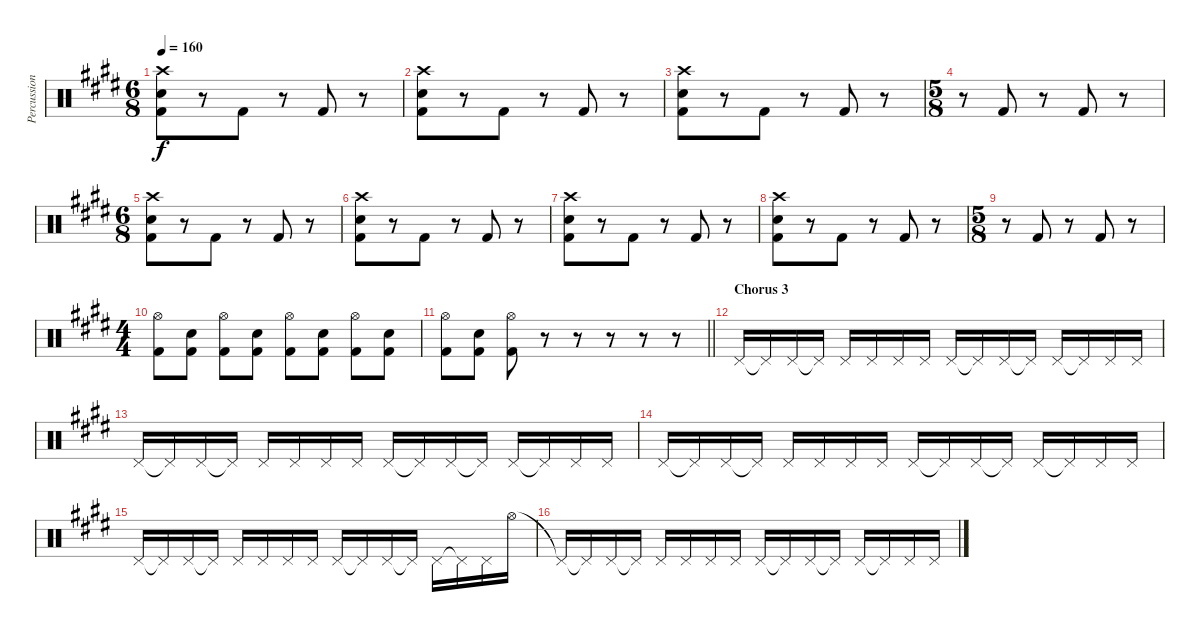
\track ("Percussion" "Percussion") {instrument percussion}
\staff {score}
\articulation defaults
\ts (6 8)
\tempo 160
\clef neutral
\ks c#minor
("Crash high (hit)" "Electric Snare (hit)" "Kick (hit) 2").8{dy f} r.8 "Kick (hit) 2".8 r.8 "Kick (hit) 2".8 r.8 |
("Crash high (hit)" "Electric Snare (hit)" "Kick (hit) 2").8 r.8 "Kick (hit) 2".8 r.8 "Kick (hit) 2".8 r.8 |
("Crash high (hit)" "Electric Snare (hit)" "Kick (hit) 2").8 r.8 "Kick (hit) 2".8 r.8 "Kick (hit) 2".8 r.8 |
\ts (5 8)
r.8 "Kick (hit) 2".8 r.8 "Kick (hit) 2".8 r.8 |
\ts (6 8)
("Crash high (hit)" "Electric Snare (hit)" "Kick (hit) 2").8 r.8 "Kick (hit) 2".8 r.8 "Kick (hit) 2".8 r.8 |
("Crash high (hit)" "Electric Snare (hit)" "Kick (hit) 2").8 r.8 "Kick (hit) 2".8 r.8 "Kick (hit) 2".8 r.8 |
("Crash high (hit)" "Electric Snare (hit)" "Kick (hit) 2").8 r.8 "Kick (hit) 2".8 r.8 "Kick (hit) 2".8 r.8 |
("Crash high (hit)" "Electric Snare (hit)" "Kick (hit) 2").8 r.8 "Kick (hit) 2".8 r.8 "Kick (hit) 2".8 r.8 |
\ts (5 8)
r.8 "Kick (hit) 2".8 r.8 "Kick (hit) 2".8 r.8 |
\ts (4 4)
("Hi-Hat (open)" "Kick (hit) 2").8 ("Electric Snare (hit)" "Kick (hit) 2").8 ("Hi-Hat (open)" "Kick (hit) 2").8 ("Electric Snare (hit)" "Kick (hit) 2").8 ("Hi-Hat (open)" "Kick (hit) 2").8 ("Electric Snare (hit)" "Kick (hit) 2").8 ("Hi-Hat (open)" "Kick (hit) 2").8 ("Electric Snare (hit)" "Kick (hit) 2").8 |
\barLineRight lightlight
("Hi-Hat (open)" "Kick (hit) 2").8 ("Electric Snare (hit)" "Kick (hit) 2").8 ("Hi-Hat (open)" "Kick (hit) 2").8 r.8 r.8 r.8 r.8 r.8 |
\section ("" "Chorus 3")
"Pedal Hi-Hat (hit)".16 "Pedal Hi-Hat (hit)"{t}.16 "Pedal Hi-Hat (hit)".16 "Pedal Hi-Hat (hit)"{t}.16 "Pedal Hi-Hat (hit)".16 "Pedal Hi-Hat (hit)".16 "Pedal Hi-Hat (hit)".16 "Pedal Hi-Hat (hit)".16 "Pedal Hi-Hat (hit)".16 "Pedal Hi-Hat (hit)"{t}.16 "Pedal Hi-Hat (hit)".16 "Pedal Hi-Hat (hit)"{t}.16 "Pedal Hi-Hat (hit)".16 "Pedal Hi-Hat (hit)"{t}.16 "Pedal Hi-Hat (hit)".16 "Pedal Hi-Hat (hit)".16 |
"Pedal Hi-Hat (hit)".16 "Pedal Hi-Hat (hit)"{t}.16 "Pedal Hi-Hat (hit)".16 "Pedal Hi-Hat (hit)"{t}.16 "Pedal Hi-Hat (hit)".16 "Pedal Hi-Hat (hit)".16 "Pedal Hi-Hat (hit)".16 "Pedal Hi-Hat (hit)".16 "Pedal Hi-Hat (hit)".16 "Pedal Hi-Hat (hit)"{t}.16 "Pedal Hi-Hat (hit)".16 "Pedal Hi-Hat (hit)"{t}.16 "Pedal Hi-Hat (hit)".16 "Pedal Hi-Hat (hit)"{t}.16 "Pedal Hi-Hat (hit)".16 "Pedal Hi-Hat (hit)".16 |
"Pedal Hi-Hat (hit)".16 "Pedal Hi-Hat (hit)"{t}.16 "Pedal Hi-Hat (hit)".16 "Pedal Hi-Hat (hit)"{t}.16 "Pedal Hi-Hat (hit)".16 "Pedal Hi-Hat (hit)".16 "Pedal Hi-Hat (hit)".16 "Pedal Hi-Hat (hit)".16 "Pedal Hi-Hat (hit)".16 "Pedal Hi-Hat (hit)"{t}.16 "Pedal Hi-Hat (hit)".16 "Pedal Hi-Hat (hit)"{t}.16 "Pedal Hi-Hat (hit)".16 "Pedal Hi-Hat (hit)"{t}.16 "Pedal Hi-Hat (hit)".16 "Pedal Hi-Hat (hit)".16 |
"Pedal Hi-Hat (hit)".16 "Pedal Hi-Hat (hit)"{t}.16 "Pedal Hi-Hat (hit)".16 "Pedal Hi-Hat (hit)"{t}.16 "Pedal Hi-Hat (hit)".16 "Pedal Hi-Hat (hit)".16 "Pedal Hi-Hat (hit)".16 "Pedal Hi-Hat (hit)".16 "Pedal Hi-Hat (hit)".16 "Pedal Hi-Hat (hit)"{t}.16 "Pedal Hi-Hat (hit)".16 "Pedal Hi-Hat (hit)"{t}.16 "Pedal Hi-Hat (hit)".16 "Pedal Hi-Hat (hit)"{t}.16 "Pedal Hi-Hat (hit)".16 "Hi-Hat (open)".16 |
"Pedal Hi-Hat (hit)"{t}.16 "Pedal Hi-Hat (hit)"{t}.16 "Pedal Hi-Hat (hit)".16 "Pedal Hi-Hat (hit)"{t}.16 "Pedal Hi-Hat (hit)".16 "Pedal Hi-Hat (hit)".16 "Pedal Hi-Hat (hit)".16 "Pedal Hi-Hat (hit)".16 "Pedal Hi-Hat (hit)".16 "Pedal Hi-Hat (hit)"{t}.16 "Pedal Hi-Hat (hit)".16 "Pedal Hi-Hat (hit)"{t}.16 "Pedal Hi-Hat (hit)".16 "Pedal Hi-Hat (hit)"{t}.16 "Pedal Hi-Hat (hit)".16 "Pedal Hi-Hat (hit)".16
